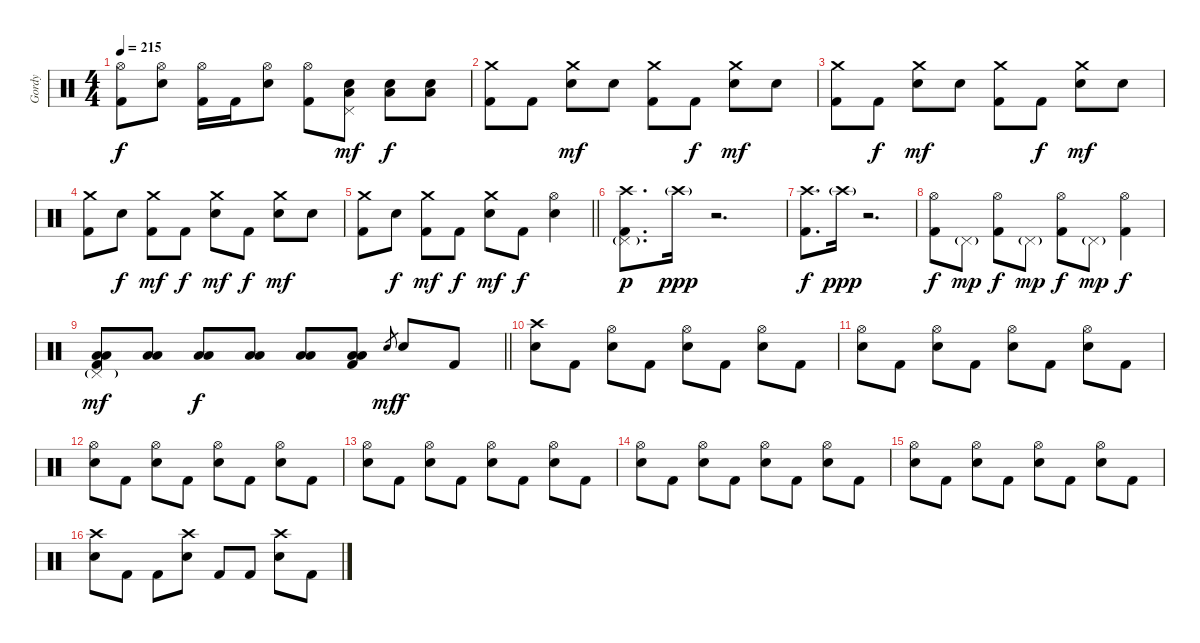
\track ("Gordy" "Gordy") {instrument percussion}
\staff {score}
\articulation defaults
\ts (4 4)
\tempo 215
\clef neutral
\ks c
("Hi-Hat (open)" "Kick (hit) 2").8{dy f} ("Hi-Hat (open)" "Electric Snare (hit)").8 ("Hi-Hat (open)" "Kick (hit) 2").16 "Kick (hit) 2".16 ("Hi-Hat (open)" "Electric Snare (hit)").8 ("Hi-Hat (open)" "Kick (hit) 2").8 ("Pedal Hi-Hat (hit)" "Electric Snare (hit)" "Low Floor Tom (hit)").8{dy mf} ("Electric Snare (hit)" "Low Floor Tom (hit)").8{dy f} ("Electric Snare (hit)" "Low Floor Tom (hit)").8 |
("Crash medium (hit)" "Kick (hit) 2").8 "Kick (hit) 2".8 ("Crash medium (hit)" "Electric Snare (hit)").8{dy mf} "Electric Snare (hit)".8 ("Crash medium (hit)" "Kick (hit) 2").8 "Kick (hit) 2".8{dy f} ("Crash medium (hit)" "Electric Snare (hit)").8{dy mf} "Electric Snare (hit)".8 |
("Crash medium (hit)" "Kick (hit) 2").8 "Kick (hit) 2".8{dy f} ("Crash medium (hit)" "Electric Snare (hit)").8{dy mf} "Electric Snare (hit)".8 ("Crash medium (hit)" "Kick (hit) 2").8 "Kick (hit) 2".8{dy f} ("Crash medium (hit)" "Electric Snare (hit)").8{dy mf} "Electric Snare (hit)".8 |
("Crash medium (hit)" "Kick (hit) 2").8 "Electric Snare (hit)".8{dy f} ("Crash medium (hit)" "Kick (hit) 2").8{dy mf} "Kick (hit) 2".8{dy f} ("Crash medium (hit)" "Electric Snare (hit)").8{dy mf} "Kick (hit) 2".8{dy f} ("Crash medium (hit)" "Electric Snare (hit)").8{dy mf} "Electric Snare (hit)".8 |
\barLineRight lightlight
("Crash medium (hit)" "Kick (hit) 2").8 "Electric Snare (hit)".8{dy f} ("Crash medium (hit)" "Kick (hit) 2").8{dy mf} "Kick (hit) 2".8{dy f} ("Crash medium (hit)" "Electric Snare (hit)").8{dy mf} "Kick (hit) 2".8{dy f} ("Hi-Hat (open)" "Electric Snare (hit)").4 |
("Pedal Hi-Hat (hit)"{g} "Crash high (hit)" "Kick (hit) 2").8{d dy p} "Crash high (hit)"{g}.16{dy ppp} r.2{d} |
("Crash high (hit)" "Kick (hit) 2").8{d dy f} "Crash high (hit)"{g}.16{dy ppp} r.2{d} |
("Hi-Hat (open)" "Kick (hit) 2").8{dy f} "Pedal Hi-Hat (hit)"{g}.8{dy mp} ("Hi-Hat (open)" "Kick (hit) 2").8{dy f} "Pedal Hi-Hat (hit)"{g}.8{dy mp} ("Hi-Hat (open)" "Kick (hit) 2").8{dy f} "Pedal Hi-Hat (hit)"{g}.8{dy mp} ("Hi-Hat (open)" "Kick (hit) 2").4{dy f} |
\barLineRight lightlight
("Pedal Hi-Hat (hit)"{g} "Low Tom (hit)" "Low Floor Tom (hit)" "Kick (hit) 2").8{dy mf} ("Low Tom (hit)" "Low Floor Tom (hit)").8 ("Low Tom (hit)" "Low Floor Tom (hit)").8{dy f} ("Low Tom (hit)" "Low Floor Tom (hit)").8 ("Low Tom (hit)" "Low Floor Tom (hit)").8 ("Low Tom (hit)" "Low Floor Tom (hit)" "Kick (hit) 2").8 "Electric Snare (hit)".8{gr dy mf} "Electric Snare (hit)".8{dy f} "Kick (hit) 2".8 |
\section ("" "")
("Crash high (hit)" "Electric Snare (hit)").8 "Kick (hit) 2".8 ("Hi-Hat (open)" "Electric Snare (hit)").8 "Kick (hit) 2".8 ("Hi-Hat (open)" "Electric Snare (hit)").8 "Kick (hit) 2".8 ("Hi-Hat (open)" "Electric Snare (hit)").8 "Kick (hit) 2".8 |
("Hi-Hat (open)" "Electric Snare (hit)").8 "Kick (hit) 2".8 ("Hi-Hat (open)" "Electric Snare (hit)").8 "Kick (hit) 2".8 ("Hi-Hat (open)" "Electric Snare (hit)").8 "Kick (hit) 2".8 ("Hi-Hat (open)" "Electric Snare (hit)").8 "Kick (hit) 2".8 |
("Hi-Hat (open)" "Electric Snare (hit)").8 "Kick (hit) 2".8 ("Hi-Hat (open)" "Electric Snare (hit)").8 "Kick (hit) 2".8 ("Hi-Hat (open)" "Electric Snare (hit)").8 "Kick (hit) 2".8 ("Hi-Hat (open)" "Electric Snare (hit)").8 "Kick (hit) 2".8 |
("Hi-Hat (open)" "Electric Snare (hit)").8 "Kick (hit) 2".8 ("Hi-Hat (open)" "Electric Snare (hit)").8 "Kick (hit) 2".8 ("Hi-Hat (open)" "Electric Snare (hit)").8 "Kick (hit) 2".8 ("Hi-Hat (open)" "Electric Snare (hit)").8 "Kick (hit) 2".8 |
("Hi-Hat (open)" "Electric Snare (hit)").8 "Kick (hit) 2".8 ("Hi-Hat (open)" "Electric Snare (hit)").8 "Kick (hit) 2".8 ("Hi-Hat (open)" "Electric Snare (hit)").8 "Kick (hit) 2".8 ("Hi-Hat (open)" "Electric Snare (hit)").8 "Kick (hit) 2".8 |
("Hi-Hat (open)" "Electric Snare (hit)").8 "Kick (hit) 2".8 ("Hi-Hat (open)" "Electric Snare (hit)").8 "Kick (hit) 2".8 ("Hi-Hat (open)" "Electric Snare (hit)").8 "Kick (hit) 2".8 ("Hi-Hat (open)" "Electric Snare (hit)").8 "Kick (hit) 2".8 |
("Crash high (hit)" "Electric Snare (hit)").8 "Kick (hit) 2".8 "Kick (hit) 2".8 ("Crash high (hit)" "Electric Snare (hit)").8 "Kick (hit) 2".8 "Kick (hit) 2".8 ("Crash high (hit)" "Electric Snare (hit)").8 "Kick (hit) 2".8
